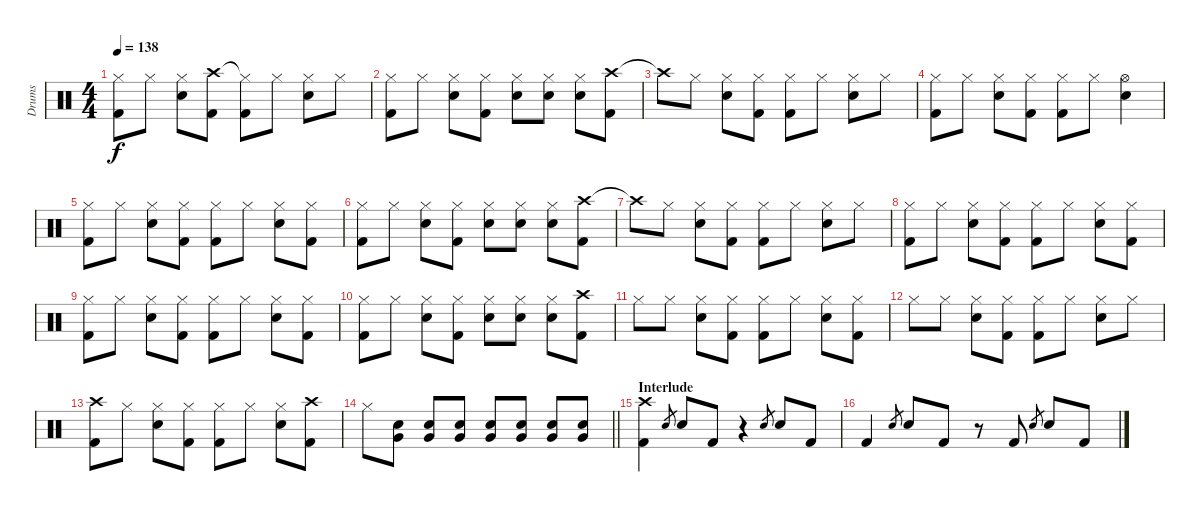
\track ("Drums" "Drums") {instrument percussion}
\staff {score}
\articulation defaults
\ts (4 4)
\tempo 138
\clef neutral
\ks c
("Hi-Hat (closed)" "Kick (hit) 2").8{dy f} "Hi-Hat (closed)".8 ("Hi-Hat (closed)" "Snare (hit) 2").8 ("Crash high (hit)" "Kick (hit) 2").8 ("Hi-Hat (closed)"{t} "Kick (hit) 2").8 "Hi-Hat (closed)".8 ("Hi-Hat (closed)" "Snare (hit) 2").8 "Hi-Hat (closed)".8 |
("Hi-Hat (closed)" "Kick (hit) 2").8 "Hi-Hat (closed)".8 ("Hi-Hat (closed)" "Snare (hit) 2").8 ("Hi-Hat (closed)" "Kick (hit) 2").8 ("Hi-Hat (closed)" "Snare (hit) 2").8 ("Hi-Hat (closed)" "Snare (hit) 2").8 ("Hi-Hat (closed)" "Snare (hit) 2").8 ("Crash high (hit)" "Kick (hit) 2").8 |
"Crash high (hit)"{t}.8 "Hi-Hat (closed)".8 ("Hi-Hat (closed)" "Snare (hit) 2").8 ("Hi-Hat (closed)" "Kick (hit) 2").8 ("Hi-Hat (closed)" "Kick (hit) 2").8 "Hi-Hat (closed)".8 ("Hi-Hat (closed)" "Snare (hit) 2").8 "Hi-Hat (closed)".8 |
("Hi-Hat (closed)" "Kick (hit) 2").8 "Hi-Hat (closed)".8 ("Hi-Hat (closed)" "Snare (hit) 2").8 ("Hi-Hat (closed)" "Kick (hit) 2").8 ("Hi-Hat (closed)" "Kick (hit) 2").8 "Hi-Hat (closed)".8 ("Hi-Hat (open)" "Snare (hit) 2").4 |
("Hi-Hat (closed)" "Kick (hit) 2").8 "Hi-Hat (closed)".8 ("Hi-Hat (closed)" "Snare (hit) 2").8 ("Hi-Hat (closed)" "Kick (hit) 2").8 ("Hi-Hat (closed)" "Kick (hit) 2").8 "Hi-Hat (closed)".8 ("Hi-Hat (closed)" "Snare (hit) 2").8 ("Hi-Hat (closed)" "Kick (hit) 2").8 |
("Hi-Hat (closed)" "Kick (hit) 2").8 "Hi-Hat (closed)".8 ("Hi-Hat (closed)" "Snare (hit) 2").8 ("Hi-Hat (closed)" "Kick (hit) 2").8 ("Hi-Hat (closed)" "Snare (hit) 2").8 ("Hi-Hat (closed)" "Snare (hit) 2").8 ("Hi-Hat (closed)" "Snare (hit) 2").8 ("Crash high (hit)" "Kick (hit) 2").8 |
"Crash high (hit)"{t}.8 "Hi-Hat (closed)".8 ("Hi-Hat (closed)" "Snare (hit) 2").8 ("Hi-Hat (closed)" "Kick (hit) 2").8 ("Hi-Hat (closed)" "Kick (hit) 2").8 "Hi-Hat (closed)".8 ("Hi-Hat (closed)" "Snare (hit) 2").8 "Hi-Hat (closed)".8 |
("Hi-Hat (closed)" "Kick (hit) 2").8 "Hi-Hat (closed)".8 ("Hi-Hat (closed)" "Snare (hit) 2").8 ("Hi-Hat (closed)" "Kick (hit) 2").8 ("Hi-Hat (closed)" "Kick (hit) 2").8 "Hi-Hat (closed)".8 ("Hi-Hat (closed)" "Snare (hit) 2").8 ("Hi-Hat (closed)" "Kick (hit) 2").8 |
("Hi-Hat (closed)" "Kick (hit) 2").8 "Hi-Hat (closed)".8 ("Hi-Hat (closed)" "Snare (hit) 2").8 ("Hi-Hat (closed)" "Kick (hit) 2").8 ("Hi-Hat (closed)" "Kick (hit) 2").8 "Hi-Hat (closed)".8 ("Hi-Hat (closed)" "Snare (hit) 2").8 ("Hi-Hat (closed)" "Kick (hit) 2").8 |
("Hi-Hat (closed)" "Kick (hit) 2").8 "Hi-Hat (closed)".8 ("Hi-Hat (closed)" "Snare (hit) 2").8 ("Hi-Hat (closed)" "Kick (hit) 2").8 ("Hi-Hat (closed)" "Snare (hit) 2").8 ("Hi-Hat (closed)" "Snare (hit) 2").8 ("Hi-Hat (closed)" "Snare (hit) 2").8 ("Crash high (hit)" "Kick (hit) 2").8 |
"Hi-Hat (closed)".8 "Hi-Hat (closed)".8 ("Hi-Hat (closed)" "Snare (hit) 2").8 ("Hi-Hat (closed)" "Kick (hit) 2").8 ("Hi-Hat (closed)" "Kick (hit) 2").8 "Hi-Hat (closed)".8 ("Hi-Hat (closed)" "Snare (hit) 2").8 ("Hi-Hat (closed)" "Kick (hit) 2").8 |
"Hi-Hat (closed)".8 "Hi-Hat (closed)".8 ("Hi-Hat (closed)" "Snare (hit) 2").8 ("Hi-Hat (closed)" "Kick (hit) 2").8 ("Hi-Hat (closed)" "Kick (hit) 2").8 "Hi-Hat (closed)".8 ("Hi-Hat (closed)" "Snare (hit) 2").8 "Hi-Hat (closed)".8 |
("Crash high (hit)" "Kick (hit) 2").8 "Hi-Hat (closed)".8 ("Hi-Hat (closed)" "Snare (hit) 2").8 ("Hi-Hat (closed)" "Kick (hit) 2").8 ("Hi-Hat (closed)" "Kick (hit) 2").8 "Hi-Hat (closed)".8 ("Hi-Hat (closed)" "Snare (hit) 2").8 ("Crash high (hit)" "Kick (hit) 2").8 |
\barLineRight lightlight "Hi-Hat (closed)".8
("Snare (hit) 2" "Very Low Tom (hit)").8 ("Snare (hit) 2" "Very Low Tom (hit)").8 ("Snare (hit) 2" "Very Low Tom (hit)").8 ("Snare (hit) 2" "Very Low Tom (hit)").8 ("Snare (hit) 2" "Very Low Tom (hit)").8 ("Snare (hit) 2" "Very Low Tom (hit)").8 ("Snare (hit) 2" "Very Low Tom (hit)").8 |
\section ("" "Interlude")
("Crash high (hit)" "Kick (hit) 2").4 "Snare (hit) 2".8{gr} "Snare (hit) 2".8 "Kick (hit) 2".8 r.4 "Snare (hit) 2".8{gr} "Snare (hit) 2".8 "Kick (hit) 2".8 |
"Kick (hit) 2".4 "Snare (hit) 2".8{gr} "Snare (hit) 2".8 "Kick (hit) 2".8 r.8 "Kick (hit) 2".8 "Snare (hit) 2".8{gr} "Snare (hit) 2".8 "Kick (hit) 2".8
